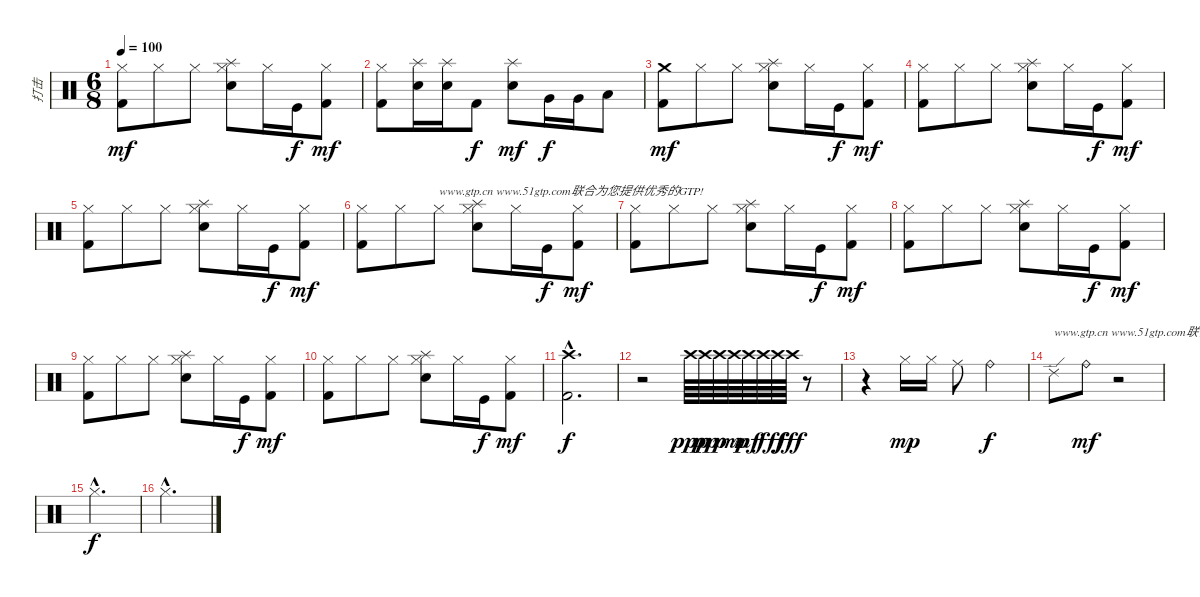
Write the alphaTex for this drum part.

\track ("打击" "打击") {instrument percussion}
\staff {score}
\articulation defaults
\ts (6 8)
\tempo 100
\clef neutral
\ks c
("Hi-Hat (closed)" "Kick (hit) 2").8{dy mf} "Hi-Hat (closed)".8 "Hi-Hat (closed)".8 ("Hi-Hat (closed)" "Splash (hit)" "Electric Snare (hit)").8 "Hi-Hat (closed)".16 "Kick (hit)".16{dy f} ("Hi-Hat (closed)" "Kick (hit) 2").8{dy mf} |
("Hi-Hat (closed)" "Kick (hit) 2").8 ("Splash (hit)" "Electric Snare (hit)").16 ("Splash (hit)" "Electric Snare (hit)").16 "Kick (hit) 2".8{dy f} ("Splash (hit)" "Electric Snare (hit)").8{dy mf} "Very Low Tom (hit)".16{dy f} "Very Low Tom (hit)".16 "Low Floor Tom (hit)".8 |
("Crash medium (hit)" "Kick (hit) 2").8{dy mf} "Hi-Hat (closed)".8 "Hi-Hat (closed)".8 ("Hi-Hat (closed)" "Splash (hit)" "Electric Snare (hit)").8 "Hi-Hat (closed)".16 "Kick (hit)".16{dy f} ("Hi-Hat (closed)" "Kick (hit) 2").8{dy mf} |
("Hi-Hat (closed)" "Kick (hit) 2").8 "Hi-Hat (closed)".8 "Hi-Hat (closed)".8 ("Hi-Hat (closed)" "Splash (hit)" "Electric Snare (hit)").8 "Hi-Hat (closed)".16 "Kick (hit)".16{dy f} ("Hi-Hat (closed)" "Kick (hit) 2").8{dy mf} |
("Hi-Hat (closed)" "Kick (hit) 2").8 "Hi-Hat (closed)".8 "Hi-Hat (closed)".8 ("Hi-Hat (closed)" "Splash (hit)" "Electric Snare (hit)").8 "Hi-Hat (closed)".16 "Kick (hit)".16{dy f} ("Hi-Hat (closed)" "Kick (hit) 2").8{dy mf} |
("Hi-Hat (closed)" "Kick (hit) 2").8 "Hi-Hat (closed)".8 "Hi-Hat (closed)".8{txt "www.gtp.cn www.51gtp.com联合为您提供优秀的GTP!"} ("Hi-Hat (closed)" "Splash (hit)" "Electric Snare (hit)").8 "Hi-Hat (closed)".16 "Kick (hit)".16{dy f} ("Hi-Hat (closed)" "Kick (hit) 2").8{dy mf} |
("Hi-Hat (closed)" "Kick (hit) 2").8 "Hi-Hat (closed)".8 "Hi-Hat (closed)".8 ("Hi-Hat (closed)" "Splash (hit)" "Electric Snare (hit)").8 "Hi-Hat (closed)".16 "Kick (hit)".16{dy f} ("Hi-Hat (closed)" "Kick (hit) 2").8{dy mf} |
("Hi-Hat (closed)" "Kick (hit) 2").8 "Hi-Hat (closed)".8 "Hi-Hat (closed)".8 ("Hi-Hat (closed)" "Splash (hit)" "Electric Snare (hit)").8 "Hi-Hat (closed)".16 "Kick (hit)".16{dy f} ("Hi-Hat (closed)" "Kick (hit) 2").8{dy mf} |
("Hi-Hat (closed)" "Kick (hit) 2").8 "Hi-Hat (closed)".8 "Hi-Hat (closed)".8 ("Hi-Hat (closed)" "Splash (hit)" "Electric Snare (hit)").8 "Hi-Hat (closed)".16 "Kick (hit)".16{dy f} ("Hi-Hat (closed)" "Kick (hit) 2").8{dy mf} |
("Hi-Hat (closed)" "Kick (hit) 2").8 "Hi-Hat (closed)".8 "Hi-Hat (closed)".8 ("Hi-Hat (closed)" "Splash (hit)" "Electric Snare (hit)").8 "Hi-Hat (closed)".16 "Kick (hit)".16{dy f} ("Hi-Hat (closed)" "Kick (hit) 2").8{dy mf} |
("Crash high (hit)"{hac} "Kick (hit) 2"{hac}).2{d dy f} |
r.2 "Crash high (hit)".64{dy ppp} "Crash high (hit)".64{dy pp} "Crash high (hit)".64{dy p} "Crash high (hit)".64{dy mp} "Crash high (hit)".64{dy mf} "Crash high (hit)".64{dy f} "Crash high (hit)".64{dy ff} "Crash high (hit)".64{dy fff} r.8 |
r.4 "Hi-Hat (closed)".16{dy mp} "Hi-Hat (closed)".16 "Ride (middle)".8 "Ride (bell)".4{dy f} |
"Ride (edge) 2".8{txt "www.gtp.cn www.51gtp.com联合为您提供优秀的GTP!"} "Ride (bell)".8{dy mf} r.2 |
"Hi-Hat (closed)"{hac}.2{d dy f} |
"Hi-Hat (closed)"{hac}.2{d}
